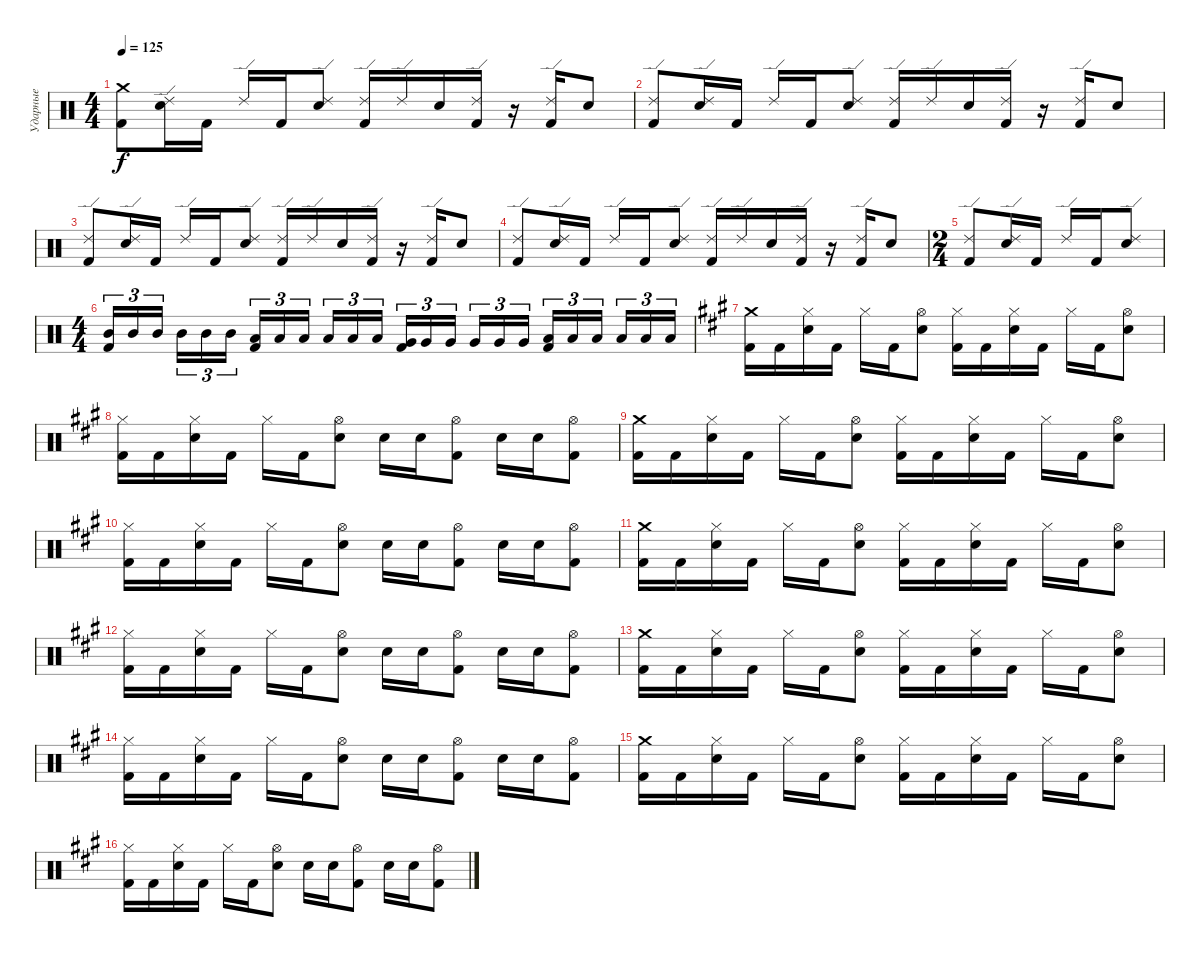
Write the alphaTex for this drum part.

\track ("Ударные" "Ударные") {instrument percussion}
\staff {score}
\articulation defaults
\ts (4 4)
\tempo 125
\clef neutral
\ks c
("Crash medium (hit)" "Kick (hit) 2").8{dy f} ("Ride (edge) 2" "Snare (hit) 2").16 "Kick (hit) 2".16 "Ride (edge) 2".16 "Kick (hit) 2".16 ("Ride (edge) 2" "Snare (hit) 2").8 ("Ride (edge) 2" "Kick (hit) 2").16 "Ride (edge) 2".16 "Snare (hit) 2".16 ("Ride (edge) 2" "Kick (hit) 2").16 r.16 ("Ride (edge) 2" "Kick (hit) 2").16 "Snare (hit) 2".8 |
("Ride (edge) 2" "Kick (hit) 2").8 ("Ride (edge) 2" "Snare (hit) 2").16 "Kick (hit) 2".16 "Ride (edge) 2".16 "Kick (hit) 2".16 ("Ride (edge) 2" "Snare (hit) 2").8 ("Ride (edge) 2" "Kick (hit) 2").16 "Ride (edge) 2".16 "Snare (hit) 2".16 ("Ride (edge) 2" "Kick (hit) 2").16 r.16 ("Ride (edge) 2" "Kick (hit) 2").16 "Snare (hit) 2".8 |
("Ride (edge) 2" "Kick (hit) 2").8 ("Ride (edge) 2" "Snare (hit) 2").16 "Kick (hit) 2".16 "Ride (edge) 2".16 "Kick (hit) 2".16 ("Ride (edge) 2" "Snare (hit) 2").8 ("Ride (edge) 2" "Kick (hit) 2").16 "Ride (edge) 2".16 "Snare (hit) 2".16 ("Ride (edge) 2" "Kick (hit) 2").16 r.16 ("Ride (edge) 2" "Kick (hit) 2").16 "Snare (hit) 2".8 |
("Ride (edge) 2" "Kick (hit) 2").8 ("Ride (edge) 2" "Snare (hit) 2").16 "Kick (hit) 2".16 "Ride (edge) 2".16 "Kick (hit) 2".16 ("Ride (edge) 2" "Snare (hit) 2").8 ("Ride (edge) 2" "Kick (hit) 2").16 "Ride (edge) 2".16 "Snare (hit) 2".16 ("Ride (edge) 2" "Kick (hit) 2").16 r.16 ("Ride (edge) 2" "Kick (hit) 2").16 "Snare (hit) 2".8 |
\ts (2 4)
("Ride (edge) 2" "Kick (hit) 2").8 ("Ride (edge) 2" "Snare (hit) 2").16 "Kick (hit) 2".16 "Ride (edge) 2".16 "Kick (hit) 2".16 ("Ride (edge) 2" "Snare (hit) 2").8 |
\ts (4 4)
("Mid Tom (hit)" "Kick (hit) 2").16{tu (3 2)} "Mid Tom (hit)".16{tu (3 2)} "Mid Tom (hit)".16{tu (3 2) beam splitsecondary} "Mid Tom (hit)".16{tu (3 2)} "Mid Tom (hit)".16{tu (3 2)} "Mid Tom (hit)".16{tu (3 2)} ("Low Tom (hit)" "Kick (hit) 2").16{tu (3 2)} "Low Tom (hit)".16{tu (3 2)} "Low Tom (hit)".16{tu (3 2) beam splitsecondary} "Low Tom (hit)".16{tu (3 2)} "Low Tom (hit)".16{tu (3 2)} "Low Tom (hit)".16{tu (3 2)} ("Very Low Tom (hit)" "Kick (hit) 2").16{tu (3 2)} "Very Low Tom (hit)".16{tu (3 2)} "Very Low Tom (hit)".16{tu (3 2) beam splitsecondary} "Very Low Tom (hit)".16{tu (3 2)} "Very Low Tom (hit)".16{tu (3 2)} "Very Low Tom (hit)".16{tu (3 2)} ("Low Floor Tom (hit)" "Kick (hit) 2").16{tu (3 2)} "Low Floor Tom (hit)".16{tu (3 2)} "Low Floor Tom (hit)".16{tu (3 2) beam splitsecondary} "Low Floor Tom (hit)".16{tu (3 2)} "Low Floor Tom (hit)".16{tu (3 2)} "Low Floor Tom (hit)".16{tu (3 2)} |
\ks a
("Crash medium (hit)" "Kick (hit) 2").16 "Kick (hit) 2".16 ("Hi-Hat (closed)" "Snare (hit) 2").16 "Kick (hit) 2".16 "Hi-Hat (closed)".16 "Kick (hit) 2".16 ("Hi-Hat (open)" "Snare (hit) 2").8 ("Hi-Hat (closed)" "Kick (hit) 2").16 "Kick (hit) 2".16 ("Hi-Hat (closed)" "Snare (hit) 2").16 "Kick (hit) 2".16 "Hi-Hat (closed)".16 "Kick (hit) 2".16 ("Hi-Hat (open)" "Snare (hit) 2").8 |
("Hi-Hat (closed)" "Kick (hit) 2").16 "Kick (hit) 2".16 ("Hi-Hat (closed)" "Snare (hit) 2").16 "Kick (hit) 2".16 "Hi-Hat (closed)".16 "Kick (hit) 2".16 ("Hi-Hat (open)" "Snare (hit) 2").8 "Snare (hit) 2".16 "Snare (hit) 2".16 ("Hi-Hat (open)" "Kick (hit) 2").8 "Snare (hit) 2".16 "Snare (hit) 2".16 ("Hi-Hat (open)" "Kick (hit) 2").8 |
("Crash medium (hit)" "Kick (hit) 2").16 "Kick (hit) 2".16 ("Hi-Hat (closed)" "Snare (hit) 2").16 "Kick (hit) 2".16 "Hi-Hat (closed)".16 "Kick (hit) 2".16 ("Hi-Hat (open)" "Snare (hit) 2").8 ("Hi-Hat (closed)" "Kick (hit) 2").16 "Kick (hit) 2".16 ("Hi-Hat (closed)" "Snare (hit) 2").16 "Kick (hit) 2".16 "Hi-Hat (closed)".16 "Kick (hit) 2".16 ("Hi-Hat (open)" "Snare (hit) 2").8 |
("Hi-Hat (closed)" "Kick (hit) 2").16 "Kick (hit) 2".16 ("Hi-Hat (closed)" "Snare (hit) 2").16 "Kick (hit) 2".16 "Hi-Hat (closed)".16 "Kick (hit) 2".16 ("Hi-Hat (open)" "Snare (hit) 2").8 "Snare (hit) 2".16 "Snare (hit) 2".16 ("Hi-Hat (open)" "Kick (hit) 2").8 "Snare (hit) 2".16 "Snare (hit) 2".16 ("Hi-Hat (open)" "Kick (hit) 2").8 |
("Crash medium (hit)" "Kick (hit) 2").16 "Kick (hit) 2".16 ("Hi-Hat (closed)" "Snare (hit) 2").16 "Kick (hit) 2".16 "Hi-Hat (closed)".16 "Kick (hit) 2".16 ("Hi-Hat (open)" "Snare (hit) 2").8 ("Hi-Hat (closed)" "Kick (hit) 2").16 "Kick (hit) 2".16 ("Hi-Hat (closed)" "Snare (hit) 2").16 "Kick (hit) 2".16 "Hi-Hat (closed)".16 "Kick (hit) 2".16 ("Hi-Hat (open)" "Snare (hit) 2").8 |
("Hi-Hat (closed)" "Kick (hit) 2").16 "Kick (hit) 2".16 ("Hi-Hat (closed)" "Snare (hit) 2").16 "Kick (hit) 2".16 "Hi-Hat (closed)".16 "Kick (hit) 2".16 ("Hi-Hat (open)" "Snare (hit) 2").8 "Snare (hit) 2".16 "Snare (hit) 2".16 ("Hi-Hat (open)" "Kick (hit) 2").8 "Snare (hit) 2".16 "Snare (hit) 2".16 ("Hi-Hat (open)" "Kick (hit) 2").8 |
("Crash medium (hit)" "Kick (hit) 2").16 "Kick (hit) 2".16 ("Hi-Hat (closed)" "Snare (hit) 2").16 "Kick (hit) 2".16 "Hi-Hat (closed)".16 "Kick (hit) 2".16 ("Hi-Hat (open)" "Snare (hit) 2").8 ("Hi-Hat (closed)" "Kick (hit) 2").16 "Kick (hit) 2".16 ("Hi-Hat (closed)" "Snare (hit) 2").16 "Kick (hit) 2".16 "Hi-Hat (closed)".16 "Kick (hit) 2".16 ("Hi-Hat (open)" "Snare (hit) 2").8 |
("Hi-Hat (closed)" "Kick (hit) 2").16 "Kick (hit) 2".16 ("Hi-Hat (closed)" "Snare (hit) 2").16 "Kick (hit) 2".16 "Hi-Hat (closed)".16 "Kick (hit) 2".16 ("Hi-Hat (open)" "Snare (hit) 2").8 "Snare (hit) 2".16 "Snare (hit) 2".16 ("Hi-Hat (open)" "Kick (hit) 2").8 "Snare (hit) 2".16 "Snare (hit) 2".16 ("Hi-Hat (open)" "Kick (hit) 2").8 |
("Crash medium (hit)" "Kick (hit) 2").16 "Kick (hit) 2".16 ("Hi-Hat (closed)" "Snare (hit) 2").16 "Kick (hit) 2".16 "Hi-Hat (closed)".16 "Kick (hit) 2".16 ("Hi-Hat (open)" "Snare (hit) 2").8 ("Hi-Hat (closed)" "Kick (hit) 2").16 "Kick (hit) 2".16 ("Hi-Hat (closed)" "Snare (hit) 2").16 "Kick (hit) 2".16 "Hi-Hat (closed)".16 "Kick (hit) 2".16 ("Hi-Hat (open)" "Snare (hit) 2").8 |
("Hi-Hat (closed)" "Kick (hit) 2").16 "Kick (hit) 2".16 ("Hi-Hat (closed)" "Snare (hit) 2").16 "Kick (hit) 2".16 "Hi-Hat (closed)".16 "Kick (hit) 2".16 ("Hi-Hat (open)" "Snare (hit) 2").8 "Snare (hit) 2".16 "Snare (hit) 2".16 ("Hi-Hat (open)" "Kick (hit) 2").8 "Snare (hit) 2".16 "Snare (hit) 2".16 ("Hi-Hat (open)" "Kick (hit) 2").8
